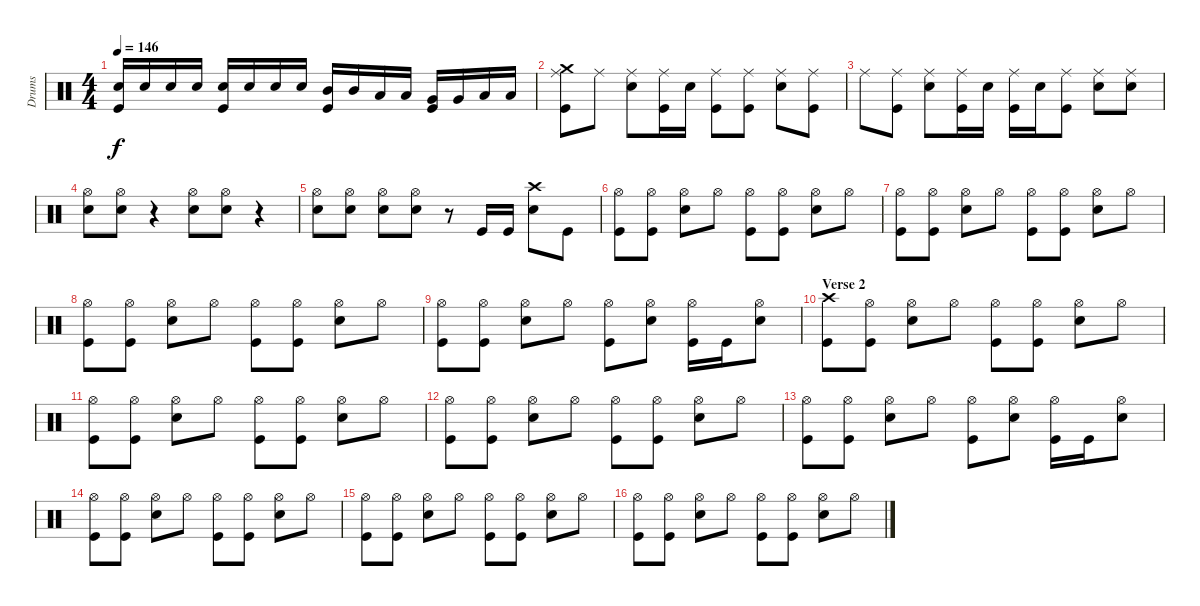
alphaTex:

\track ("Drums" "Drums") {instrument percussion}
\staff {score}
\articulation defaults
\ts (4 4)
\tempo 146
\clef neutral
\ks c
("Snare (hit) 2" "Kick (hit)").16{dy f} "Snare (hit) 2".16 "Snare (hit) 2".16 "Snare (hit) 2".16 ("Snare (hit) 2" "Kick (hit)").16 "Snare (hit) 2".16 "Snare (hit) 2".16 "Snare (hit) 2".16 ("Mid Tom (hit)" "Kick (hit)").16 "Mid Tom (hit)".16 "Low Tom (hit)".16 "Low Tom (hit)".16 ("Very Low Tom (hit)" "Kick (hit)").16 "Very Low Tom (hit)".16 "Low Floor Tom (hit)".16 "Low Floor Tom (hit)".16 |
("Ride (middle)" "Crash medium (hit)" "Kick (hit)").8 "Ride (middle)".8 ("Ride (middle)" "Snare (hit) 2").8 ("Ride (middle)" "Kick (hit)").16 "Snare (hit) 2".16 ("Ride (middle)" "Kick (hit)").8 ("Ride (middle)" "Kick (hit)").8 ("Ride (middle)" "Snare (hit) 2").8 ("Ride (middle)" "Kick (hit)").8 |
"Ride (middle)".8 ("Ride (middle)" "Kick (hit)").8 ("Ride (middle)" "Snare (hit) 2").8 ("Ride (middle)" "Kick (hit)").16 "Snare (hit) 2".16 ("Ride (middle)" "Kick (hit)").16 "Snare (hit) 2".16 ("Ride (middle)" "Kick (hit)").8 ("Ride (middle)" "Snare (hit) 2").8 ("Ride (middle)" "Snare (hit) 2").8 |
("Hi-Hat (open)" "Snare (hit) 2").8 ("Hi-Hat (open)" "Snare (hit) 2").8 r.4 ("Hi-Hat (open)" "Snare (hit) 2").8 ("Hi-Hat (open)" "Snare (hit) 2").8 r.4 |
("Hi-Hat (open)" "Snare (hit) 2").8 ("Hi-Hat (open)" "Snare (hit) 2").8 ("Hi-Hat (open)" "Snare (hit) 2").8 ("Hi-Hat (open)" "Snare (hit) 2").8 r.8 "Kick (hit)".16 "Kick (hit)".16 ("Crash high (hit)" "Snare (hit) 2").8 "Kick (hit)".8 |
("Hi-Hat (open)" "Kick (hit)").8 ("Hi-Hat (open)" "Kick (hit)").8 ("Hi-Hat (open)" "Snare (hit) 2").8 "Hi-Hat (open)".8 ("Hi-Hat (open)" "Kick (hit)").8 ("Hi-Hat (open)" "Kick (hit)").8 ("Hi-Hat (open)" "Snare (hit) 2").8 "Hi-Hat (open)".8 |
("Hi-Hat (open)" "Kick (hit)").8 ("Hi-Hat (open)" "Kick (hit)").8 ("Hi-Hat (open)" "Snare (hit) 2").8 "Hi-Hat (open)".8 ("Hi-Hat (open)" "Kick (hit)").8 ("Hi-Hat (open)" "Kick (hit)").8 ("Hi-Hat (open)" "Snare (hit) 2").8 "Hi-Hat (open)".8 |
("Hi-Hat (open)" "Kick (hit)").8 ("Hi-Hat (open)" "Kick (hit)").8 ("Hi-Hat (open)" "Snare (hit) 2").8 "Hi-Hat (open)".8 ("Hi-Hat (open)" "Kick (hit)").8 ("Hi-Hat (open)" "Kick (hit)").8 ("Hi-Hat (open)" "Snare (hit) 2").8 "Hi-Hat (open)".8 |
("Hi-Hat (open)" "Kick (hit)").8 ("Hi-Hat (open)" "Kick (hit)").8 ("Hi-Hat (open)" "Snare (hit) 2").8 "Hi-Hat (open)".8 ("Hi-Hat (open)" "Kick (hit)").8 ("Hi-Hat (open)" "Snare (hit) 2").8 ("Hi-Hat (open)" "Kick (hit)").16 "Kick (hit)".16 ("Hi-Hat (open)" "Snare (hit) 2").8 |
\section ("" "Verse 2")
("Crash high (hit)" "Kick (hit)").8 ("Hi-Hat (open)" "Kick (hit)").8 ("Hi-Hat (open)" "Snare (hit) 2").8 "Hi-Hat (open)".8 ("Hi-Hat (open)" "Kick (hit)").8 ("Hi-Hat (open)" "Kick (hit)").8 ("Hi-Hat (open)" "Snare (hit) 2").8 "Hi-Hat (open)".8 |
("Hi-Hat (open)" "Kick (hit)").8 ("Hi-Hat (open)" "Kick (hit)").8 ("Hi-Hat (open)" "Snare (hit) 2").8 "Hi-Hat (open)".8 ("Hi-Hat (open)" "Kick (hit)").8 ("Hi-Hat (open)" "Kick (hit)").8 ("Hi-Hat (open)" "Snare (hit) 2").8 "Hi-Hat (open)".8 |
("Hi-Hat (open)" "Kick (hit)").8 ("Hi-Hat (open)" "Kick (hit)").8 ("Hi-Hat (open)" "Snare (hit) 2").8 "Hi-Hat (open)".8 ("Hi-Hat (open)" "Kick (hit)").8 ("Hi-Hat (open)" "Kick (hit)").8 ("Hi-Hat (open)" "Snare (hit) 2").8 "Hi-Hat (open)".8 |
("Hi-Hat (open)" "Kick (hit)").8 ("Hi-Hat (open)" "Kick (hit)").8 ("Hi-Hat (open)" "Snare (hit) 2").8 "Hi-Hat (open)".8 ("Hi-Hat (open)" "Kick (hit)").8 ("Hi-Hat (open)" "Snare (hit) 2").8 ("Hi-Hat (open)" "Kick (hit)").16 "Kick (hit)".16 ("Hi-Hat (open)" "Snare (hit) 2").8 |
("Hi-Hat (open)" "Kick (hit)").8 ("Hi-Hat (open)" "Kick (hit)").8 ("Hi-Hat (open)" "Snare (hit) 2").8 "Hi-Hat (open)".8 ("Hi-Hat (open)" "Kick (hit)").8 ("Hi-Hat (open)" "Kick (hit)").8 ("Hi-Hat (open)" "Snare (hit) 2").8 "Hi-Hat (open)".8 |
("Hi-Hat (open)" "Kick (hit)").8 ("Hi-Hat (open)" "Kick (hit)").8 ("Hi-Hat (open)" "Snare (hit) 2").8 "Hi-Hat (open)".8 ("Hi-Hat (open)" "Kick (hit)").8 ("Hi-Hat (open)" "Kick (hit)").8 ("Hi-Hat (open)" "Snare (hit) 2").8 "Hi-Hat (open)".8 |
("Hi-Hat (open)" "Kick (hit)").8 ("Hi-Hat (open)" "Kick (hit)").8 ("Hi-Hat (open)" "Snare (hit) 2").8 "Hi-Hat (open)".8 ("Hi-Hat (open)" "Kick (hit)").8 ("Hi-Hat (open)" "Kick (hit)").8 ("Hi-Hat (open)" "Snare (hit) 2").8 "Hi-Hat (open)".8
